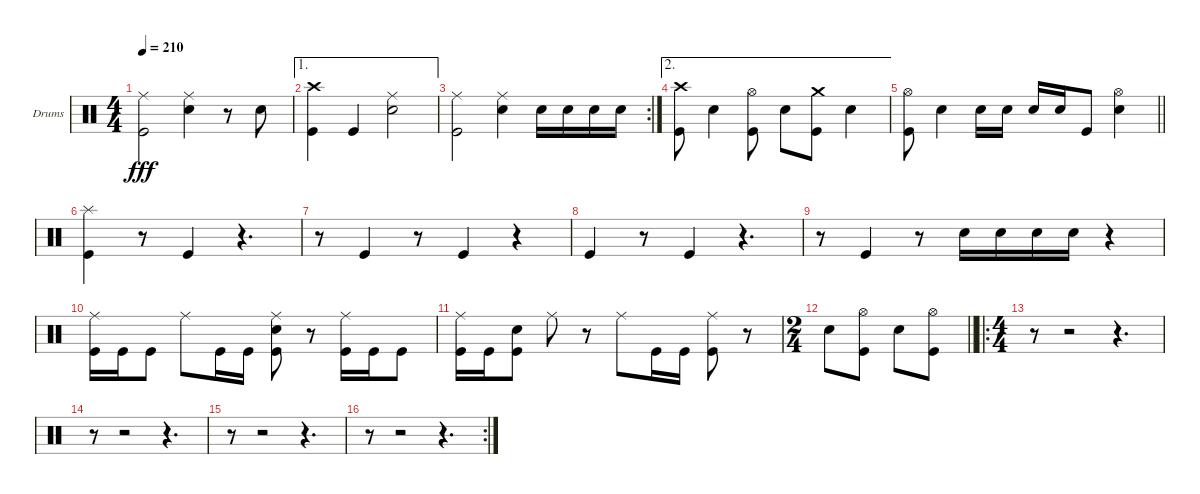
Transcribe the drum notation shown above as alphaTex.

\bracketExtendMode groupsimilarinstruments
\firstSystemTrackNameOrientation horizontal
\otherSystemsTrackNameOrientation horizontal
\track ("Drumkit" "Drums") {instrument percussion}
\staff {score}
\articulation defaults
\ts (4 4)
\tempo 210
\clef neutral
\ks c
("Ride (middle)" "Kick (hit)").2{dy fff} ("Ride (middle)" "Snare (hit) 2").4 r.8 "Snare (hit) 2".8 |
\ae 1
("Crash high (hit)" "Kick (hit)").4 "Kick (hit)".4 ("Ride (middle)" "Snare (hit) 2").2 |
\rc 2
("Ride (middle)" "Kick (hit)").2 ("Ride (middle)" "Snare (hit) 2").4 "Snare (hit) 2".16 "Snare (hit) 2".16 "Snare (hit) 2".16 "Snare (hit) 2".16 |
\ae 2
("Crash high (hit)" "Kick (hit)").8 "Snare (hit) 2".4 ("Hi-Hat (open)" "Kick (hit)").8 "Snare (hit) 2".8 ("Crash medium (hit)" "Kick (hit)").8 "Snare (hit) 2".4 |
\barLineRight lightlight
("Hi-Hat (open)" "Kick (hit)").8 "Snare (hit) 2".4 "Snare (hit) 2".16 "Snare (hit) 2".16 "Snare (hit) 2".16 "Snare (hit) 2".16 "Kick (hit)".8 ("Hi-Hat (open)" "Snare (hit) 2").4 |
("Splash (hit)" "Kick (hit)").4 r.8 "Kick (hit)".4 r.4{d} |
r.8 "Kick (hit)".4 r.8 "Kick (hit)".4 r.4 |
"Kick (hit)".4 r.8 "Kick (hit)".4 r.4{d} |
r.8 "Kick (hit)".4 r.8 "Snare (hit) 2".16 "Snare (hit) 2".16 "Snare (hit) 2".16 "Snare (hit) 2".16 r.4 |
("Ride (middle)" "Kick (hit)").16 "Kick (hit)".16 "Kick (hit)".8 "Ride (middle)".8 "Kick (hit)".16 "Kick (hit)".16 ("Ride (middle)" "Snare (hit) 2" "Kick (hit)").8 r.8 ("Ride (middle)" "Kick (hit)").16 "Kick (hit)".16 "Kick (hit)".8 |
("Ride (middle)" "Kick (hit)").16 "Kick (hit)".16 ("Snare (hit) 2" "Kick (hit)").8 "Ride (middle)".8 r.8 "Ride (middle)".8 "Kick (hit)".16 "Kick (hit)".16 ("Ride (middle)" "Kick (hit)").8 r.8 |
\ts (2 4)
\beaming (8 2 2 2 2)
\barLineRight lightlight "Snare (hit) 2".8
("Hi-Hat (open)" "Kick (hit)").8 "Snare (hit) 2".8 ("Hi-Hat (open)" "Kick (hit)").8 |
\ro
\ts (4 4)
\beaming (8 2 2 2 2)
r.8 r.2 r.4{d} |
r.8 r.2 r.4{d} |
r.8 r.2 r.4{d} |
\rc 2
r.8 r.2 r.4{d}
